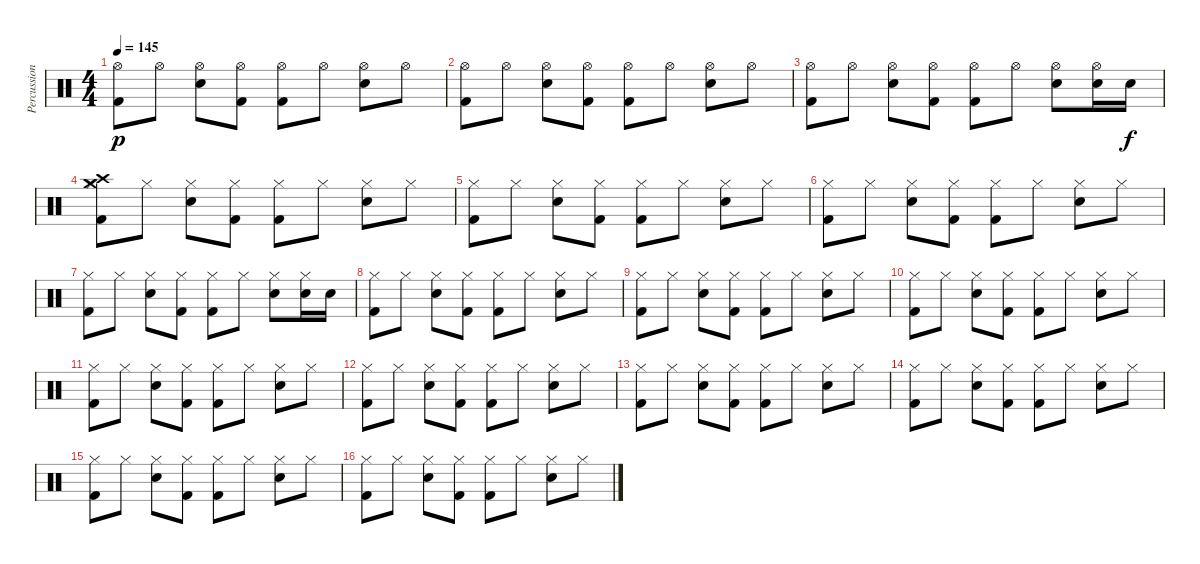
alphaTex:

\track ("Percussion" "Percussion") {instrument percussion}
\staff {score}
\articulation defaults
\ts (4 4)
\tempo 145
\clef neutral
\ks c
("Hi-Hat (open)" "Kick (hit) 2").8{dy p} "Hi-Hat (open)".8 ("Hi-Hat (open)" "Electric Snare (hit)").8 ("Hi-Hat (open)" "Kick (hit) 2").8 ("Hi-Hat (open)" "Kick (hit) 2").8 "Hi-Hat (open)".8 ("Hi-Hat (open)" "Electric Snare (hit)").8 "Hi-Hat (open)".8 |
("Hi-Hat (open)" "Kick (hit) 2").8 "Hi-Hat (open)".8 ("Hi-Hat (open)" "Electric Snare (hit)").8 ("Hi-Hat (open)" "Kick (hit) 2").8 ("Hi-Hat (open)" "Kick (hit) 2").8 "Hi-Hat (open)".8 ("Hi-Hat (open)" "Electric Snare (hit)").8 "Hi-Hat (open)".8 |
("Hi-Hat (open)" "Kick (hit) 2").8 "Hi-Hat (open)".8 ("Hi-Hat (open)" "Electric Snare (hit)").8 ("Hi-Hat (open)" "Kick (hit) 2").8 ("Hi-Hat (open)" "Kick (hit) 2").8 "Hi-Hat (open)".8 ("Hi-Hat (open)" "Electric Snare (hit)").8 ("Hi-Hat (open)" "Snare (hit) 2").16 "Snare (hit) 2".16{dy f} |
("Crash high (hit)" "Hi-Hat (closed)" "Crash medium (hit)" "Kick (hit) 2").8 "Hi-Hat (closed)".8 ("Hi-Hat (closed)" "Electric Snare (hit)").8 ("Hi-Hat (closed)" "Kick (hit) 2").8 ("Hi-Hat (closed)" "Kick (hit) 2").8 "Hi-Hat (closed)".8 ("Hi-Hat (closed)" "Electric Snare (hit)").8 "Hi-Hat (closed)".8 |
("Hi-Hat (closed)" "Kick (hit) 2").8 "Hi-Hat (closed)".8 ("Hi-Hat (closed)" "Electric Snare (hit)").8 ("Hi-Hat (closed)" "Kick (hit) 2").8 ("Hi-Hat (closed)" "Kick (hit) 2").8 "Hi-Hat (closed)".8 ("Hi-Hat (closed)" "Electric Snare (hit)").8 "Hi-Hat (closed)".8 |
("Hi-Hat (closed)" "Kick (hit) 2").8 "Hi-Hat (closed)".8 ("Hi-Hat (closed)" "Electric Snare (hit)").8 ("Hi-Hat (closed)" "Kick (hit) 2").8 ("Hi-Hat (closed)" "Kick (hit) 2").8 "Hi-Hat (closed)".8 ("Hi-Hat (closed)" "Electric Snare (hit)").8 "Hi-Hat (closed)".8 |
("Hi-Hat (closed)" "Kick (hit) 2").8 "Hi-Hat (closed)".8 ("Hi-Hat (closed)" "Electric Snare (hit)").8 ("Hi-Hat (closed)" "Kick (hit) 2").8 ("Hi-Hat (closed)" "Kick (hit) 2").8 "Hi-Hat (closed)".8 ("Hi-Hat (closed)" "Electric Snare (hit)").8 ("Hi-Hat (closed)" "Electric Snare (hit)").16 "Electric Snare (hit)".16 |
("Hi-Hat (closed)" "Kick (hit) 2").8 "Hi-Hat (closed)".8 ("Hi-Hat (closed)" "Electric Snare (hit)").8 ("Hi-Hat (closed)" "Kick (hit) 2").8 ("Hi-Hat (closed)" "Kick (hit) 2").8 "Hi-Hat (closed)".8 ("Hi-Hat (closed)" "Electric Snare (hit)").8 "Hi-Hat (closed)".8 |
("Hi-Hat (closed)" "Kick (hit) 2").8 "Hi-Hat (closed)".8 ("Hi-Hat (closed)" "Electric Snare (hit)").8 ("Hi-Hat (closed)" "Kick (hit) 2").8 ("Hi-Hat (closed)" "Kick (hit) 2").8 "Hi-Hat (closed)".8 ("Hi-Hat (closed)" "Electric Snare (hit)").8 "Hi-Hat (closed)".8 |
("Hi-Hat (closed)" "Kick (hit) 2").8 "Hi-Hat (closed)".8 ("Hi-Hat (closed)" "Electric Snare (hit)").8 ("Hi-Hat (closed)" "Kick (hit) 2").8 ("Hi-Hat (closed)" "Kick (hit) 2").8 "Hi-Hat (closed)".8 ("Hi-Hat (closed)" "Electric Snare (hit)").8 "Hi-Hat (closed)".8 |
("Hi-Hat (closed)" "Kick (hit) 2").8 "Hi-Hat (closed)".8 ("Hi-Hat (closed)" "Electric Snare (hit)").8 ("Hi-Hat (closed)" "Kick (hit) 2").8 ("Hi-Hat (closed)" "Kick (hit) 2").8 "Hi-Hat (closed)".8 ("Hi-Hat (closed)" "Electric Snare (hit)").8 "Hi-Hat (closed)".8 |
("Hi-Hat (closed)" "Kick (hit) 2").8 "Hi-Hat (closed)".8 ("Hi-Hat (closed)" "Electric Snare (hit)").8 ("Hi-Hat (closed)" "Kick (hit) 2").8 ("Hi-Hat (closed)" "Kick (hit) 2").8 "Hi-Hat (closed)".8 ("Hi-Hat (closed)" "Electric Snare (hit)").8 "Hi-Hat (closed)".8 |
("Hi-Hat (closed)" "Kick (hit) 2").8 "Hi-Hat (closed)".8 ("Hi-Hat (closed)" "Electric Snare (hit)").8 ("Hi-Hat (closed)" "Kick (hit) 2").8 ("Hi-Hat (closed)" "Kick (hit) 2").8 "Hi-Hat (closed)".8 ("Hi-Hat (closed)" "Electric Snare (hit)").8 "Hi-Hat (closed)".8 |
("Hi-Hat (closed)" "Kick (hit) 2").8 "Hi-Hat (closed)".8 ("Hi-Hat (closed)" "Electric Snare (hit)").8 ("Hi-Hat (closed)" "Kick (hit) 2").8 ("Hi-Hat (closed)" "Kick (hit) 2").8 "Hi-Hat (closed)".8 ("Hi-Hat (closed)" "Electric Snare (hit)").8 "Hi-Hat (closed)".8 |
("Hi-Hat (closed)" "Kick (hit) 2").8 "Hi-Hat (closed)".8 ("Hi-Hat (closed)" "Electric Snare (hit)").8 ("Hi-Hat (closed)" "Kick (hit) 2").8 ("Hi-Hat (closed)" "Kick (hit) 2").8 "Hi-Hat (closed)".8 ("Hi-Hat (closed)" "Electric Snare (hit)").8 "Hi-Hat (closed)".8 |
("Hi-Hat (closed)" "Kick (hit) 2").8 "Hi-Hat (closed)".8 ("Hi-Hat (closed)" "Electric Snare (hit)").8 ("Hi-Hat (closed)" "Kick (hit) 2").8 ("Hi-Hat (closed)" "Kick (hit) 2").8 "Hi-Hat (closed)".8 ("Hi-Hat (closed)" "Electric Snare (hit)").8 "Hi-Hat (closed)".8
